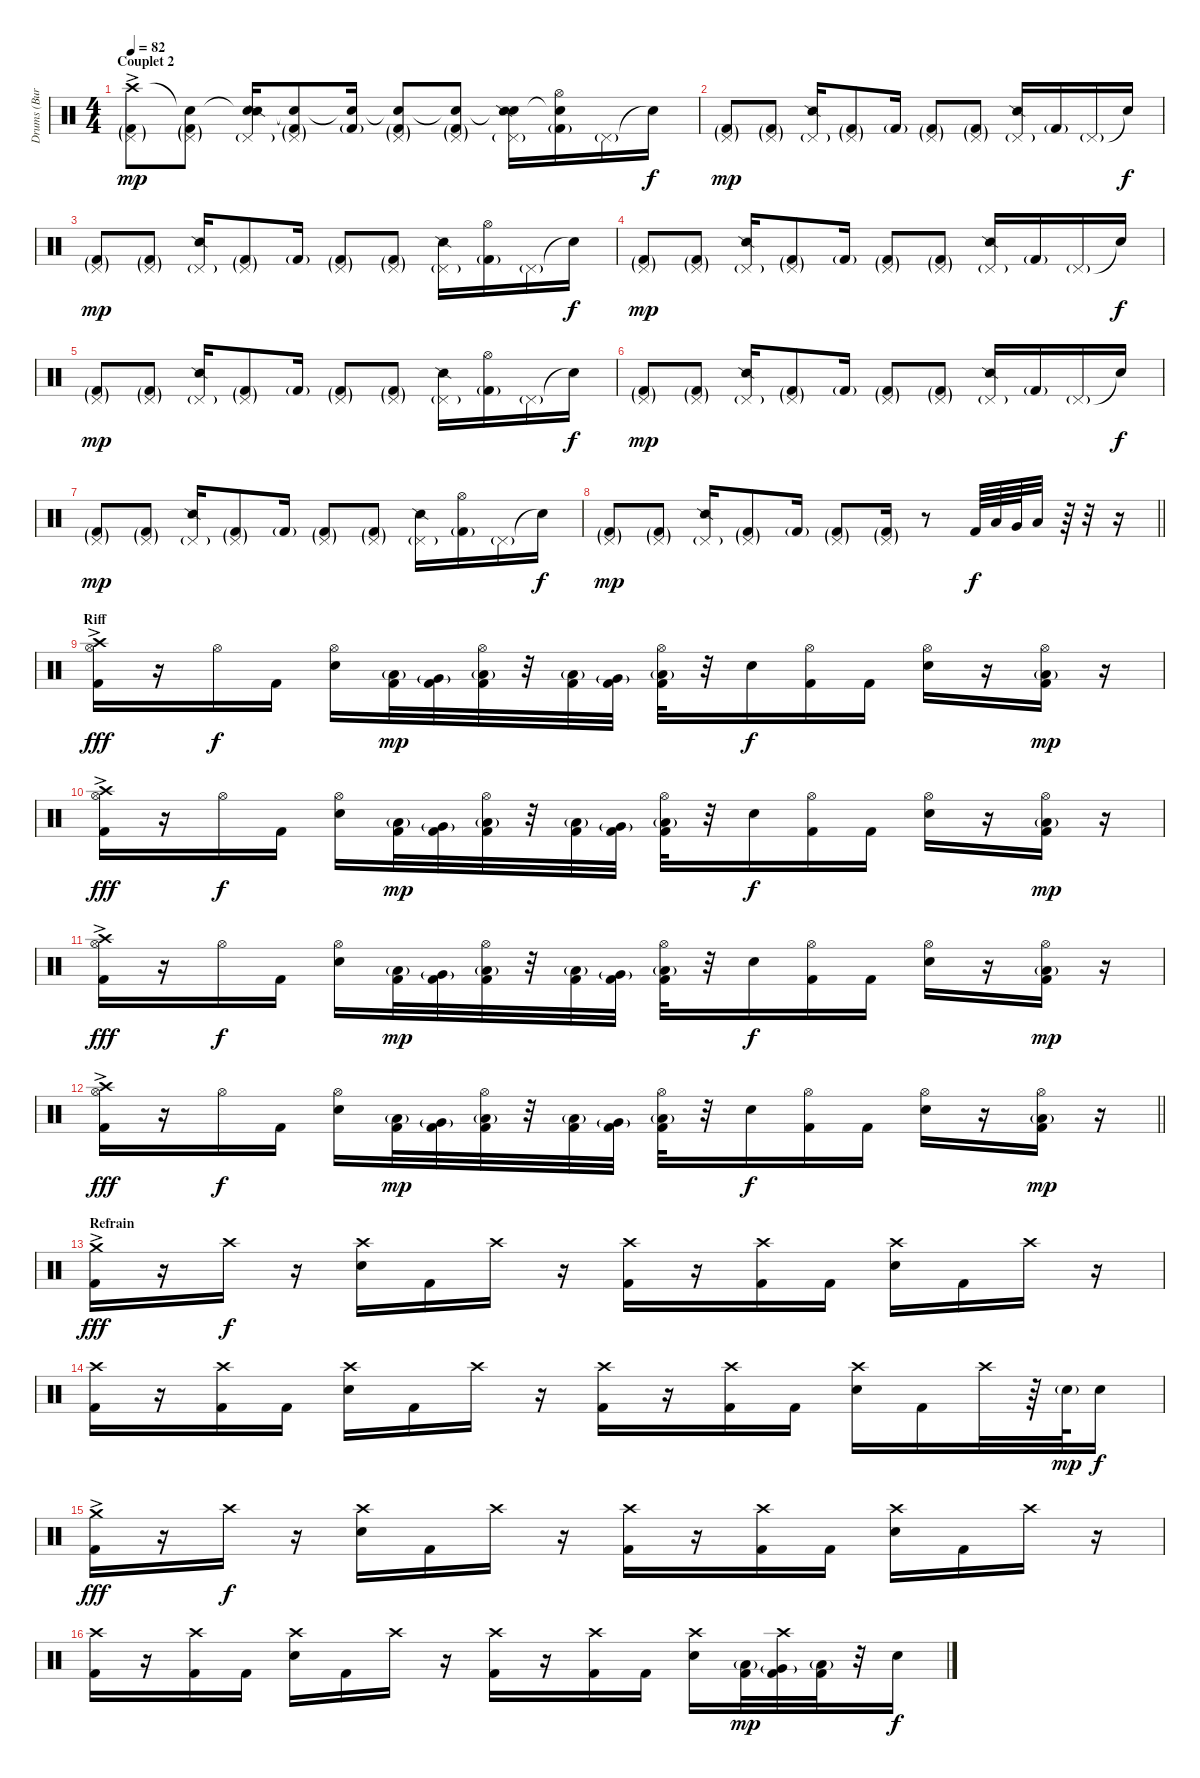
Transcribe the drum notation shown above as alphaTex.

\track ("Drums (Burns)" "Drums (Bur") {instrument percussion}
\staff {score}
\articulation defaults
\ts (4 4)
\section ("" "Couplet 2")
\tempo 82
\clef neutral
\ks c
("Crash high (hit)"{ac} "Pedal Hi-Hat (hit)"{g} "Kick (hit) 2"{g}).8{dy mp} ("Snare (hit)"{t} "Pedal Hi-Hat (hit)"{g} "Kick (hit) 2"{g}).8 ("Snare (hit)"{t} "Pedal Hi-Hat (hit)"{g} "Snare (side stick) 2").16 ("Snare (hit)"{t} "Pedal Hi-Hat (hit)"{g} "Kick (hit) 2"{g}).8 ("Snare (hit)"{t} "Kick (hit) 2"{g}).16 ("Snare (hit)"{t} "Pedal Hi-Hat (hit)"{g} "Kick (hit) 2"{g}).8 ("Snare (hit)"{t} "Pedal Hi-Hat (hit)"{g} "Kick (hit) 2"{g}).8 ("Snare (hit)"{t} "Pedal Hi-Hat (hit)"{g} "Snare (side stick) 2").16 ("Snare (hit)"{t} "Hi-Hat (open)" "Kick (hit) 2"{g}).16 "Pedal Hi-Hat (hit)"{g}.16 "Snare (hit)"{t}.16{dy f} |
("Pedal Hi-Hat (hit)"{g} "Kick (hit) 2"{g}).8{dy mp} ("Pedal Hi-Hat (hit)"{g} "Kick (hit) 2"{g}).8 ("Pedal Hi-Hat (hit)"{g} "Snare (side stick) 2").16 ("Pedal Hi-Hat (hit)"{g} "Kick (hit) 2"{g}).8 "Kick (hit) 2"{g}.16 ("Pedal Hi-Hat (hit)"{g} "Kick (hit) 2"{g}).8 ("Pedal Hi-Hat (hit)"{g} "Kick (hit) 2"{g}).8 ("Pedal Hi-Hat (hit)"{g} "Snare (side stick) 2").16 "Kick (hit) 2"{g}.16 "Pedal Hi-Hat (hit)"{g}.16 "Snare (hit)"{t}.16{dy f} |
("Pedal Hi-Hat (hit)"{g} "Kick (hit) 2"{g}).8{dy mp} ("Pedal Hi-Hat (hit)"{g} "Kick (hit) 2"{g}).8 ("Pedal Hi-Hat (hit)"{g} "Snare (side stick) 2").16 ("Pedal Hi-Hat (hit)"{g} "Kick (hit) 2"{g}).8 "Kick (hit) 2"{g}.16 ("Pedal Hi-Hat (hit)"{g} "Kick (hit) 2"{g}).8 ("Pedal Hi-Hat (hit)"{g} "Kick (hit) 2"{g}).8 ("Pedal Hi-Hat (hit)"{g} "Snare (side stick) 2").16 ("Hi-Hat (open)" "Kick (hit) 2"{g}).16 "Pedal Hi-Hat (hit)"{g}.16 "Snare (hit)"{t}.16{dy f} |
("Pedal Hi-Hat (hit)"{g} "Kick (hit) 2"{g}).8{dy mp} ("Pedal Hi-Hat (hit)"{g} "Kick (hit) 2"{g}).8 ("Pedal Hi-Hat (hit)"{g} "Snare (side stick) 2").16 ("Pedal Hi-Hat (hit)"{g} "Kick (hit) 2"{g}).8 "Kick (hit) 2"{g}.16 ("Pedal Hi-Hat (hit)"{g} "Kick (hit) 2"{g}).8 ("Pedal Hi-Hat (hit)"{g} "Kick (hit) 2"{g}).8 ("Pedal Hi-Hat (hit)"{g} "Snare (side stick) 2").16 "Kick (hit) 2"{g}.16 "Pedal Hi-Hat (hit)"{g}.16 "Snare (hit)"{t}.16{dy f} |
("Pedal Hi-Hat (hit)"{g} "Kick (hit) 2"{g}).8{dy mp} ("Pedal Hi-Hat (hit)"{g} "Kick (hit) 2"{g}).8 ("Pedal Hi-Hat (hit)"{g} "Snare (side stick) 2").16 ("Pedal Hi-Hat (hit)"{g} "Kick (hit) 2"{g}).8 "Kick (hit) 2"{g}.16 ("Pedal Hi-Hat (hit)"{g} "Kick (hit) 2"{g}).8 ("Pedal Hi-Hat (hit)"{g} "Kick (hit) 2"{g}).8 ("Pedal Hi-Hat (hit)"{g} "Snare (side stick) 2").16 ("Hi-Hat (open)" "Kick (hit) 2"{g}).16 "Pedal Hi-Hat (hit)"{g}.16 "Snare (hit)"{t}.16{dy f} |
("Pedal Hi-Hat (hit)"{g} "Kick (hit) 2"{g}).8{dy mp} ("Pedal Hi-Hat (hit)"{g} "Kick (hit) 2"{g}).8 ("Pedal Hi-Hat (hit)"{g} "Snare (side stick) 2").16 ("Pedal Hi-Hat (hit)"{g} "Kick (hit) 2"{g}).8 "Kick (hit) 2"{g}.16 ("Pedal Hi-Hat (hit)"{g} "Kick (hit) 2"{g}).8 ("Pedal Hi-Hat (hit)"{g} "Kick (hit) 2"{g}).8 ("Pedal Hi-Hat (hit)"{g} "Snare (side stick) 2").16 "Kick (hit) 2"{g}.16 "Pedal Hi-Hat (hit)"{g}.16 "Snare (hit)"{t}.16{dy f} |
("Pedal Hi-Hat (hit)"{g} "Kick (hit) 2"{g}).8{dy mp} ("Pedal Hi-Hat (hit)"{g} "Kick (hit) 2"{g}).8 ("Pedal Hi-Hat (hit)"{g} "Snare (side stick) 2").16 ("Pedal Hi-Hat (hit)"{g} "Kick (hit) 2"{g}).8 "Kick (hit) 2"{g}.16 ("Pedal Hi-Hat (hit)"{g} "Kick (hit) 2"{g}).8 ("Pedal Hi-Hat (hit)"{g} "Kick (hit) 2"{g}).8 ("Pedal Hi-Hat (hit)"{g} "Snare (side stick) 2").16 ("Hi-Hat (open)" "Kick (hit) 2"{g}).16 "Pedal Hi-Hat (hit)"{g}.16 "Snare (hit)"{t}.16{dy f} |
\barLineRight lightlight
("Pedal Hi-Hat (hit)"{g} "Kick (hit) 2"{g}).8{dy mp} ("Pedal Hi-Hat (hit)"{g} "Kick (hit) 2"{g}).8 ("Pedal Hi-Hat (hit)"{g} "Snare (side stick) 2").16 ("Pedal Hi-Hat (hit)"{g} "Kick (hit) 2"{g}).8 "Kick (hit) 2"{g}.16 ("Pedal Hi-Hat (hit)"{g} "Kick (hit) 2"{g}).8 ("Pedal Hi-Hat (hit)"{g} "Kick (hit) 2"{g}).16 r.8 "Kick (hit) 2".64{dy f} "Low Tom (hit)".64 "Very Low Tom (hit)".64 "Low Floor Tom (hit)".32 r.64 r.32 r.16 |
\section ("" "Riff")
("Crash high (hit)"{ac} "Hi-Hat (open)" "Kick (hit) 2").16{dy fff} r.16 "Hi-Hat (open)".16{dy f} "Kick (hit) 2".16 ("Hi-Hat (open)" "Electric Snare (hit)").16 ("Low Tom (hit)"{g} "Kick (hit) 2").32{dy mp} ("Very Low Tom (hit)"{g} "Kick (hit) 2").32 ("Hi-Hat (open)" "Low Floor Tom (hit)"{g} "Kick (hit) 2").32 r.32 ("Low Tom (hit)"{g} "Kick (hit) 2").32 ("Very Low Tom (hit)"{g} "Kick (hit) 2").32 ("Hi-Hat (open)" "Low Floor Tom (hit)"{g} "Kick (hit) 2").32 r.32 "Electric Snare (hit)".16{dy f} ("Hi-Hat (open)" "Kick (hit) 2").16 "Kick (hit) 2".16 ("Hi-Hat (open)" "Electric Snare (hit)").16 r.16 ("Hi-Hat (open)" "Low Floor Tom (hit)"{g} "Kick (hit) 2").16{dy mp} r.16 |
("Crash high (hit)"{ac} "Hi-Hat (open)" "Kick (hit) 2").16{dy fff} r.16 "Hi-Hat (open)".16{dy f} "Kick (hit) 2".16 ("Hi-Hat (open)" "Electric Snare (hit)").16 ("Low Tom (hit)"{g} "Kick (hit) 2").32{dy mp} ("Very Low Tom (hit)"{g} "Kick (hit) 2").32 ("Hi-Hat (open)" "Low Floor Tom (hit)"{g} "Kick (hit) 2").32 r.32 ("Low Tom (hit)"{g} "Kick (hit) 2").32 ("Very Low Tom (hit)"{g} "Kick (hit) 2").32 ("Hi-Hat (open)" "Low Floor Tom (hit)"{g} "Kick (hit) 2").32 r.32 "Electric Snare (hit)".16{dy f} ("Hi-Hat (open)" "Kick (hit) 2").16 "Kick (hit) 2".16 ("Hi-Hat (open)" "Electric Snare (hit)").16 r.16 ("Hi-Hat (open)" "Low Floor Tom (hit)"{g} "Kick (hit) 2").16{dy mp} r.16 |
("Crash high (hit)"{ac} "Hi-Hat (open)" "Kick (hit) 2").16{dy fff} r.16 "Hi-Hat (open)".16{dy f} "Kick (hit) 2".16 ("Hi-Hat (open)" "Electric Snare (hit)").16 ("Low Tom (hit)"{g} "Kick (hit) 2").32{dy mp} ("Very Low Tom (hit)"{g} "Kick (hit) 2").32 ("Hi-Hat (open)" "Low Floor Tom (hit)"{g} "Kick (hit) 2").32 r.32 ("Low Tom (hit)"{g} "Kick (hit) 2").32 ("Very Low Tom (hit)"{g} "Kick (hit) 2").32 ("Hi-Hat (open)" "Low Floor Tom (hit)"{g} "Kick (hit) 2").32 r.32 "Electric Snare (hit)".16{dy f} ("Hi-Hat (open)" "Kick (hit) 2").16 "Kick (hit) 2".16 ("Hi-Hat (open)" "Electric Snare (hit)").16 r.16 ("Hi-Hat (open)" "Low Floor Tom (hit)"{g} "Kick (hit) 2").16{dy mp} r.16 |
\barLineRight lightlight
("Crash high (hit)"{ac} "Hi-Hat (open)" "Kick (hit) 2").16{dy fff} r.16 "Hi-Hat (open)".16{dy f} "Kick (hit) 2".16 ("Hi-Hat (open)" "Electric Snare (hit)").16 ("Low Tom (hit)"{g} "Kick (hit) 2").32{dy mp} ("Very Low Tom (hit)"{g} "Kick (hit) 2").32 ("Hi-Hat (open)" "Low Floor Tom (hit)"{g} "Kick (hit) 2").32 r.32 ("Low Tom (hit)"{g} "Kick (hit) 2").32 ("Very Low Tom (hit)"{g} "Kick (hit) 2").32 ("Hi-Hat (open)" "Low Floor Tom (hit)"{g} "Kick (hit) 2").32 r.32 "Electric Snare (hit)".16{dy f} ("Hi-Hat (open)" "Kick (hit) 2").16 "Kick (hit) 2".16 ("Hi-Hat (open)" "Electric Snare (hit)").16 r.16 ("Hi-Hat (open)" "Low Floor Tom (hit)"{g} "Kick (hit) 2").16{dy mp} r.16 |
\section ("" "Refrain")
("Crash medium (hit)"{ac} "Kick (hit) 2").16{dy fff} r.16 "Crash high (hit)".16{dy f} r.16 ("Crash high (hit)" "Electric Snare (hit)").16 "Kick (hit) 2".16 "Crash high (hit)".16 r.16 ("Crash high (hit)" "Kick (hit) 2").16 r.16 ("Crash high (hit)" "Kick (hit) 2").16 "Kick (hit) 2".16 ("Crash high (hit)" "Electric Snare (hit)").16 "Kick (hit) 2".16 "Crash high (hit)".16 r.16 |
("Crash high (hit)" "Kick (hit) 2").16 r.16 ("Crash high (hit)" "Kick (hit) 2").16 "Kick (hit) 2".16 ("Crash high (hit)" "Electric Snare (hit)").16 "Kick (hit) 2".16 "Crash high (hit)".16 r.16 ("Crash high (hit)" "Kick (hit) 2").16 r.16 ("Crash high (hit)" "Kick (hit) 2").16 "Kick (hit) 2".16 ("Crash high (hit)" "Electric Snare (hit)").16 "Kick (hit) 2".16 "Crash high (hit)".32 r.64 "Electric Snare (hit)"{g}.64{dy mp} "Electric Snare (hit)".16{dy f} |
("Crash medium (hit)"{ac} "Kick (hit) 2").16{dy fff} r.16 "Crash high (hit)".16{dy f} r.16 ("Crash high (hit)" "Electric Snare (hit)").16 "Kick (hit) 2".16 "Crash high (hit)".16 r.16 ("Crash high (hit)" "Kick (hit) 2").16 r.16 ("Crash high (hit)" "Kick (hit) 2").16 "Kick (hit) 2".16 ("Crash high (hit)" "Electric Snare (hit)").16 "Kick (hit) 2".16 "Crash high (hit)".16 r.16 |
("Crash high (hit)" "Kick (hit) 2").16 r.16 ("Crash high (hit)" "Kick (hit) 2").16 "Kick (hit) 2".16 ("Crash high (hit)" "Electric Snare (hit)").16 "Kick (hit) 2".16 "Crash high (hit)".16 r.16 ("Crash high (hit)" "Kick (hit) 2").16 r.16 ("Crash high (hit)" "Kick (hit) 2").16 "Kick (hit) 2".16 ("Crash high (hit)" "Electric Snare (hit)").16 ("Low Tom (hit)"{g} "Kick (hit) 2").32{dy mp} ("Crash high (hit)" "Very Low Tom (hit)"{g} "Kick (hit) 2").32 ("Low Floor Tom (hit)"{g} "Kick (hit) 2").32 r.32 "Electric Snare (hit)".16{dy f}
